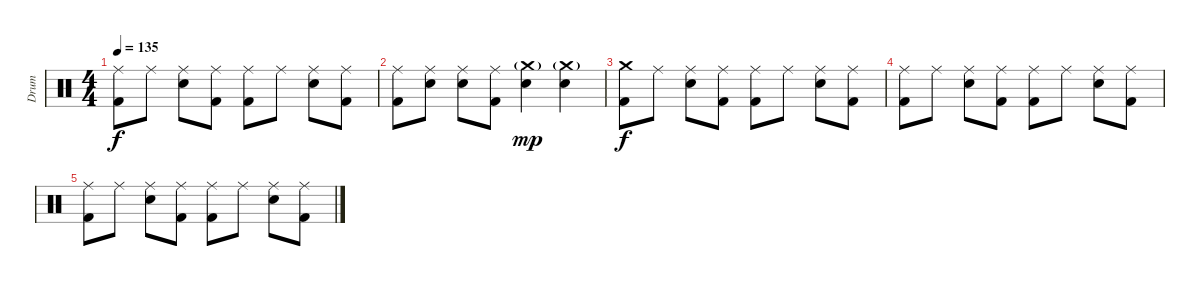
\track ("Drum" "Drum") {instrument percussion}
\staff {score}
\articulation defaults
\ts (4 4)
\tempo 135
\clef neutral
\ks c
("Ride (middle)" "Kick (hit) 2").8{dy f} "Ride (middle)".8 ("Ride (middle)" "Snare (hit) 2").8 ("Ride (middle)" "Kick (hit) 2").8 ("Ride (middle)" "Kick (hit) 2").8 "Ride (middle)".8 ("Ride (middle)" "Snare (hit) 2").8 ("Ride (middle)" "Kick (hit) 2").8 |
("Ride (middle)" "Kick (hit) 2").8 ("Ride (middle)" "Snare (hit) 2").8 ("Ride (middle)" "Snare (hit) 2").8 ("Ride (middle)" "Kick (hit) 2").8 ("Crash medium (hit)"{g} "Snare (hit) 2").4{dy mp} ("Crash medium (hit)"{g} "Snare (hit) 2").4 |
("Crash medium (hit)" "Kick (hit) 2").8{dy f} "Ride (middle)".8 ("Ride (middle)" "Snare (hit) 2").8 ("Ride (middle)" "Kick (hit) 2").8 ("Ride (middle)" "Kick (hit) 2").8 "Ride (middle)".8 ("Ride (middle)" "Snare (hit) 2").8 ("Ride (middle)" "Kick (hit) 2").8 |
("Ride (middle)" "Kick (hit) 2").8 "Ride (middle)".8 ("Ride (middle)" "Snare (hit) 2").8 ("Ride (middle)" "Kick (hit) 2").8 ("Ride (middle)" "Kick (hit) 2").8 "Ride (middle)".8 ("Ride (middle)" "Snare (hit) 2").8 ("Ride (middle)" "Kick (hit) 2").8 |
("Ride (middle)" "Kick (hit) 2").8 "Ride (middle)".8 ("Ride (middle)" "Snare (hit) 2").8 ("Ride (middle)" "Kick (hit) 2").8 ("Ride (middle)" "Kick (hit) 2").8 "Ride (middle)".8 ("Ride (middle)" "Snare (hit) 2").8 ("Ride (middle)" "Kick (hit) 2").8
